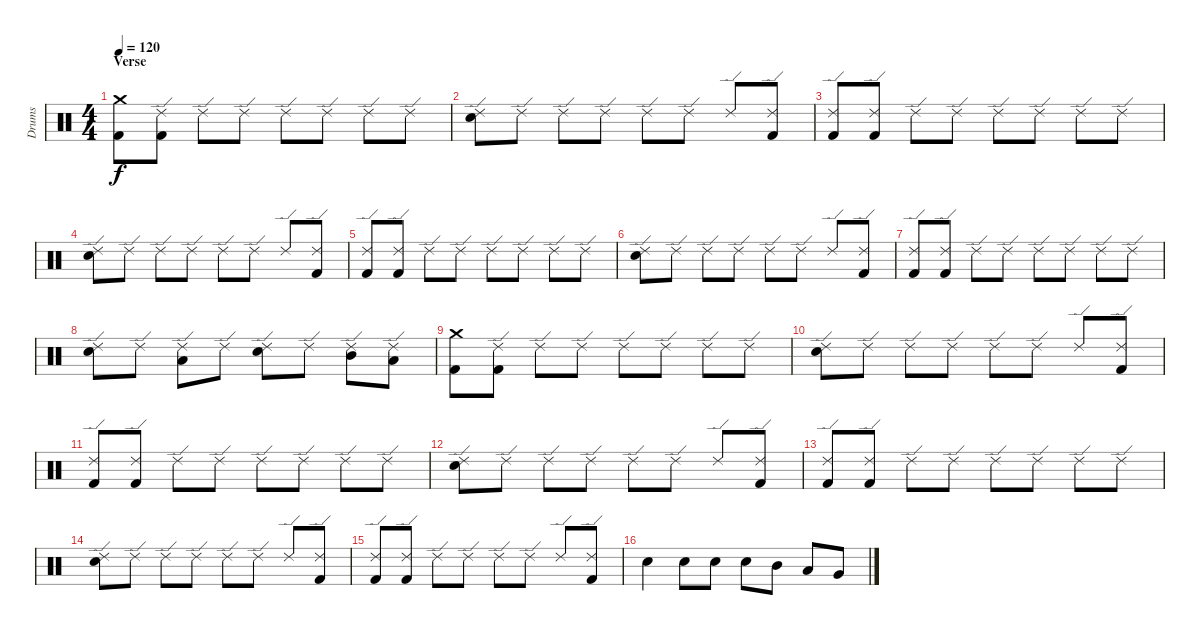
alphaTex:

\track ("Drums" "Drums") {instrument percussion}
\staff {score}
\articulation defaults
\ts (4 4)
\section ("" "Verse")
\tempo 120
\clef neutral
\ks c
("Crash medium (hit)" "Kick (hit) 2").8{dy f} ("Ride (edge) 2" "Kick (hit) 2").8 "Ride (edge) 2".8 "Ride (edge) 2".8 "Ride (edge) 2".8 "Ride (edge) 2".8 "Ride (edge) 2".8 "Ride (edge) 2".8 |
("Ride (edge) 2" "Snare (hit) 2").8 "Ride (edge) 2".8 "Ride (edge) 2".8 "Ride (edge) 2".8 "Ride (edge) 2".8 "Ride (edge) 2".8 "Ride (edge) 2".8 ("Ride (edge) 2" "Kick (hit) 2").8 |
("Ride (edge) 2" "Kick (hit) 2").8 ("Ride (edge) 2" "Kick (hit) 2").8 "Ride (edge) 2".8 "Ride (edge) 2".8 "Ride (edge) 2".8 "Ride (edge) 2".8 "Ride (edge) 2".8 "Ride (edge) 2".8 |
("Ride (edge) 2" "Snare (hit) 2").8 "Ride (edge) 2".8 "Ride (edge) 2".8 "Ride (edge) 2".8 "Ride (edge) 2".8 "Ride (edge) 2".8 "Ride (edge) 2".8 ("Ride (edge) 2" "Kick (hit) 2").8 |
("Ride (edge) 2" "Kick (hit) 2").8 ("Ride (edge) 2" "Kick (hit) 2").8 "Ride (edge) 2".8 "Ride (edge) 2".8 "Ride (edge) 2".8 "Ride (edge) 2".8 "Ride (edge) 2".8 "Ride (edge) 2".8 |
("Ride (edge) 2" "Snare (hit) 2").8 "Ride (edge) 2".8 "Ride (edge) 2".8 "Ride (edge) 2".8 "Ride (edge) 2".8 "Ride (edge) 2".8 "Ride (edge) 2".8 ("Ride (edge) 2" "Kick (hit) 2").8 |
("Ride (edge) 2" "Kick (hit) 2").8 ("Ride (edge) 2" "Kick (hit) 2").8 "Ride (edge) 2".8 "Ride (edge) 2".8 "Ride (edge) 2".8 "Ride (edge) 2".8 "Ride (edge) 2".8 "Ride (edge) 2".8 |
("Ride (edge) 2" "Snare (hit) 2").8 "Ride (edge) 2".8 ("Ride (edge) 2" "Low Tom (hit)").8 "Ride (edge) 2".8 ("Ride (edge) 2" "Snare (hit) 2").8 "Ride (edge) 2".8 ("Ride (edge) 2" "Mid Tom (hit)").8 ("Ride (edge) 2" "Low Tom (hit)").8 |
("Crash medium (hit)" "Kick (hit) 2").8 ("Ride (edge) 2" "Kick (hit) 2").8 "Ride (edge) 2".8 "Ride (edge) 2".8 "Ride (edge) 2".8 "Ride (edge) 2".8 "Ride (edge) 2".8 "Ride (edge) 2".8 |
("Ride (edge) 2" "Snare (hit) 2").8 "Ride (edge) 2".8 "Ride (edge) 2".8 "Ride (edge) 2".8 "Ride (edge) 2".8 "Ride (edge) 2".8 "Ride (edge) 2".8 ("Ride (edge) 2" "Kick (hit) 2").8 |
("Ride (edge) 2" "Kick (hit) 2").8 ("Ride (edge) 2" "Kick (hit) 2").8 "Ride (edge) 2".8 "Ride (edge) 2".8 "Ride (edge) 2".8 "Ride (edge) 2".8 "Ride (edge) 2".8 "Ride (edge) 2".8 |
("Ride (edge) 2" "Snare (hit) 2").8 "Ride (edge) 2".8 "Ride (edge) 2".8 "Ride (edge) 2".8 "Ride (edge) 2".8 "Ride (edge) 2".8 "Ride (edge) 2".8 ("Ride (edge) 2" "Kick (hit) 2").8 |
("Ride (edge) 2" "Kick (hit) 2").8 ("Ride (edge) 2" "Kick (hit) 2").8 "Ride (edge) 2".8 "Ride (edge) 2".8 "Ride (edge) 2".8 "Ride (edge) 2".8 "Ride (edge) 2".8 "Ride (edge) 2".8 |
("Ride (edge) 2" "Snare (hit) 2").8 "Ride (edge) 2".8 "Ride (edge) 2".8 "Ride (edge) 2".8 "Ride (edge) 2".8 "Ride (edge) 2".8 "Ride (edge) 2".8 ("Ride (edge) 2" "Kick (hit) 2").8 |
("Ride (edge) 2" "Kick (hit) 2").8 ("Ride (edge) 2" "Kick (hit) 2").8 "Ride (edge) 2".8 "Ride (edge) 2".8 "Ride (edge) 2".8 "Ride (edge) 2".8 "Ride (edge) 2".8 ("Ride (edge) 2" "Kick (hit) 2").8 |
"Snare (hit) 2".4 "Snare (hit) 2".8 "Snare (hit) 2".8 "Snare (hit) 2".8 "Mid Tom (hit)".8 "Low Tom (hit)".8 "Very Low Tom (hit)".8
